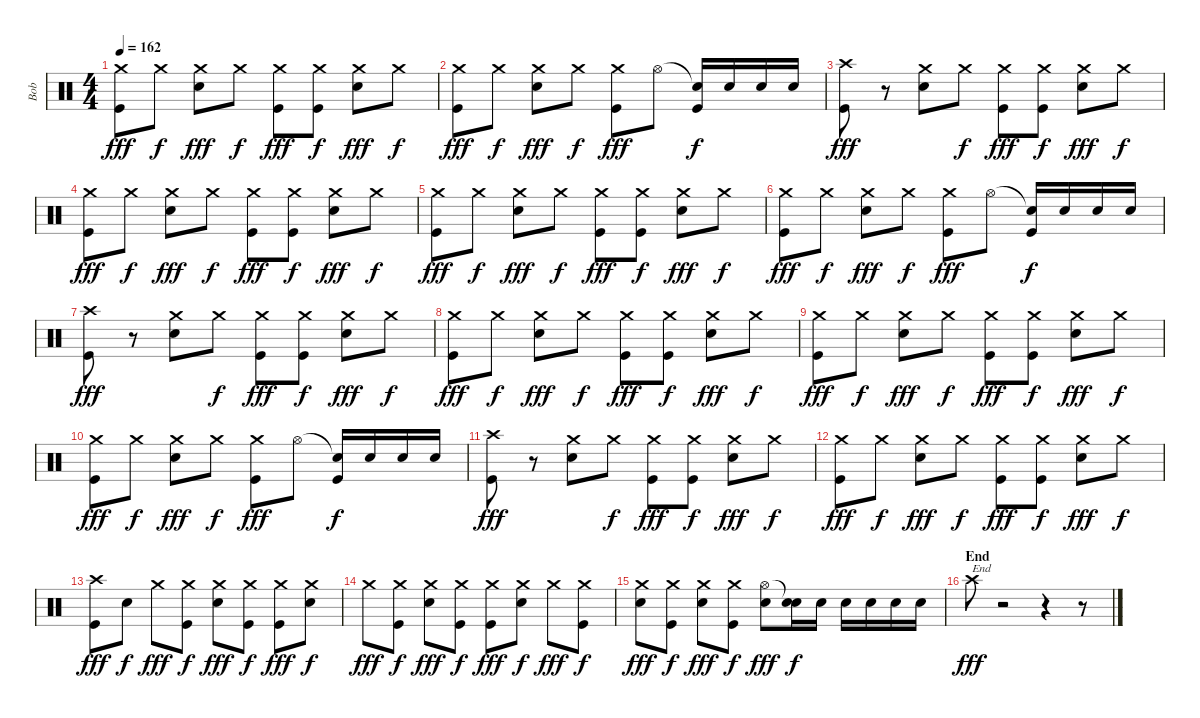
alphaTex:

\track ("Bob" "Bob") {instrument percussion}
\staff {score}
\articulation defaults
\ts (4 4)
\tempo 162
\clef neutral
\ks c
("Crash medium (hit)" "Kick (hit)").8{dy fff} "Crash medium (hit)".8{dy f} ("Crash medium (hit)" "Electric Snare (hit)").8{dy fff} "Crash medium (hit)".8{dy f} ("Crash medium (hit)" "Kick (hit)").8{dy fff} ("Crash medium (hit)" "Kick (hit)").8{dy f} ("Crash medium (hit)" "Electric Snare (hit)").8{dy fff} "Crash medium (hit)".8{dy f} |
("Crash medium (hit)" "Kick (hit)").8{dy fff} "Crash medium (hit)".8{dy f} ("Crash medium (hit)" "Electric Snare (hit)").8{dy fff} "Crash medium (hit)".8{dy f} ("Crash medium (hit)" "Kick (hit)").8{dy fff} "Hi-Hat (open)".8 ("Snare (hit)"{t} "Kick (hit)").16{dy f} "Electric Snare (hit)".16 "Electric Snare (hit)".16 "Electric Snare (hit)".16 |
("Crash high (hit)" "Kick (hit)").8{dy fff} r.8 ("Crash medium (hit)" "Electric Snare (hit)").8 "Crash medium (hit)".8{dy f} ("Crash medium (hit)" "Kick (hit)").8{dy fff} ("Crash medium (hit)" "Kick (hit)").8{dy f} ("Crash medium (hit)" "Electric Snare (hit)").8{dy fff} "Crash medium (hit)".8{dy f} |
("Crash medium (hit)" "Kick (hit)").8{dy fff} "Crash medium (hit)".8{dy f} ("Crash medium (hit)" "Electric Snare (hit)").8{dy fff} "Crash medium (hit)".8{dy f} ("Crash medium (hit)" "Kick (hit)").8{dy fff} ("Crash medium (hit)" "Kick (hit)").8{dy f} ("Crash medium (hit)" "Electric Snare (hit)").8{dy fff} "Crash medium (hit)".8{dy f} |
("Crash medium (hit)" "Kick (hit)").8{dy fff} "Crash medium (hit)".8{dy f} ("Crash medium (hit)" "Electric Snare (hit)").8{dy fff} "Crash medium (hit)".8{dy f} ("Crash medium (hit)" "Kick (hit)").8{dy fff} ("Crash medium (hit)" "Kick (hit)").8{dy f} ("Crash medium (hit)" "Electric Snare (hit)").8{dy fff} "Crash medium (hit)".8{dy f} |
("Crash medium (hit)" "Kick (hit)").8{dy fff} "Crash medium (hit)".8{dy f} ("Crash medium (hit)" "Electric Snare (hit)").8{dy fff} "Crash medium (hit)".8{dy f} ("Crash medium (hit)" "Kick (hit)").8{dy fff} "Hi-Hat (open)".8 ("Snare (hit)"{t} "Kick (hit)").16{dy f} "Electric Snare (hit)".16 "Electric Snare (hit)".16 "Electric Snare (hit)".16 |
("Crash high (hit)" "Kick (hit)").8{dy fff} r.8 ("Crash medium (hit)" "Electric Snare (hit)").8 "Crash medium (hit)".8{dy f} ("Crash medium (hit)" "Kick (hit)").8{dy fff} ("Crash medium (hit)" "Kick (hit)").8{dy f} ("Crash medium (hit)" "Electric Snare (hit)").8{dy fff} "Crash medium (hit)".8{dy f} |
("Crash medium (hit)" "Kick (hit)").8{dy fff} "Crash medium (hit)".8{dy f} ("Crash medium (hit)" "Electric Snare (hit)").8{dy fff} "Crash medium (hit)".8{dy f} ("Crash medium (hit)" "Kick (hit)").8{dy fff} ("Crash medium (hit)" "Kick (hit)").8{dy f} ("Crash medium (hit)" "Electric Snare (hit)").8{dy fff} "Crash medium (hit)".8{dy f} |
("Crash medium (hit)" "Kick (hit)").8{dy fff} "Crash medium (hit)".8{dy f} ("Crash medium (hit)" "Electric Snare (hit)").8{dy fff} "Crash medium (hit)".8{dy f} ("Crash medium (hit)" "Kick (hit)").8{dy fff} ("Crash medium (hit)" "Kick (hit)").8{dy f} ("Crash medium (hit)" "Electric Snare (hit)").8{dy fff} "Crash medium (hit)".8{dy f} |
("Crash medium (hit)" "Kick (hit)").8{dy fff} "Crash medium (hit)".8{dy f} ("Crash medium (hit)" "Electric Snare (hit)").8{dy fff} "Crash medium (hit)".8{dy f} ("Crash medium (hit)" "Kick (hit)").8{dy fff} "Hi-Hat (open)".8 ("Snare (hit)"{t} "Kick (hit)").16{dy f} "Electric Snare (hit)".16 "Electric Snare (hit)".16 "Electric Snare (hit)".16 |
("Crash high (hit)" "Kick (hit)").8{dy fff} r.8 ("Crash medium (hit)" "Electric Snare (hit)").8 "Crash medium (hit)".8{dy f} ("Crash medium (hit)" "Kick (hit)").8{dy fff} ("Crash medium (hit)" "Kick (hit)").8{dy f} ("Crash medium (hit)" "Electric Snare (hit)").8{dy fff} "Crash medium (hit)".8{dy f} |
("Crash medium (hit)" "Kick (hit)").8{dy fff} "Crash medium (hit)".8{dy f} ("Crash medium (hit)" "Electric Snare (hit)").8{dy fff} "Crash medium (hit)".8{dy f} ("Crash medium (hit)" "Kick (hit)").8{dy fff} ("Crash medium (hit)" "Kick (hit)").8{dy f} ("Crash medium (hit)" "Electric Snare (hit)").8{dy fff} "Crash medium (hit)".8{dy f} |
("Crash high (hit)" "Kick (hit)").8{dy fff} "Electric Snare (hit)".8{dy f} "Crash medium (hit)".8{dy fff} ("Crash medium (hit)" "Kick (hit)").8{dy f} ("Crash medium (hit)" "Electric Snare (hit)").8{dy fff} ("Crash medium (hit)" "Kick (hit)").8{dy f} ("Crash medium (hit)" "Kick (hit)").8{dy fff} ("Crash medium (hit)" "Electric Snare (hit)").8{dy f} |
"Crash medium (hit)".8{dy fff} ("Crash medium (hit)" "Kick (hit)").8{dy f} ("Crash medium (hit)" "Electric Snare (hit)").8{dy fff} ("Crash medium (hit)" "Kick (hit)").8{dy f} ("Crash medium (hit)" "Kick (hit)").8{dy fff} ("Crash medium (hit)" "Electric Snare (hit)").8{dy f} "Crash medium (hit)".8{dy fff} ("Crash medium (hit)" "Kick (hit)").8{dy f} |
("Crash medium (hit)" "Electric Snare (hit)").8{dy fff} ("Crash medium (hit)" "Kick (hit)").8{dy f} ("Crash medium (hit)" "Electric Snare (hit)").8{dy fff} ("Crash medium (hit)" "Kick (hit)").8{dy f} ("Hi-Hat (open)" "Electric Snare (hit)").8{dy fff} ("Snare (hit)"{t} "Electric Snare (hit)").16{dy f} "Electric Snare (hit)".16 "Electric Snare (hit)".16 "Electric Snare (hit)".16 "Electric Snare (hit)".16 "Electric Snare (hit)".16 |
\section ("" "End")
"Crash high (hit)".8{txt "End" dy fff} r.2 r.4 r.8
